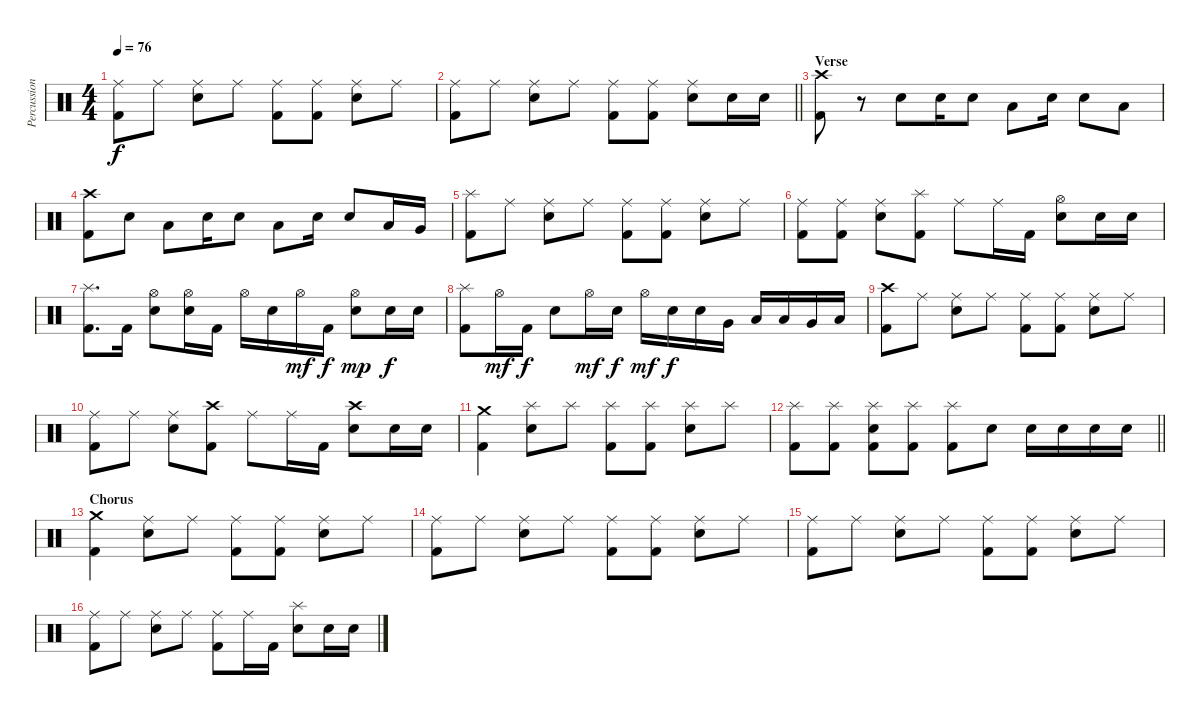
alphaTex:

\track ("Percussion" "Percussion") {instrument percussion}
\staff {score}
\articulation defaults
\ts (4 4)
\tempo 76
\clef neutral
\ks c
("Ride (middle)" "Kick (hit) 2").8{dy f} "Ride (middle)".8 ("Ride (middle)" "Electric Snare (hit)").8 "Ride (middle)".8 ("Ride (middle)" "Kick (hit) 2").8 ("Ride (middle)" "Kick (hit) 2").8 ("Ride (middle)" "Electric Snare (hit)").8 "Ride (middle)".8 |
\barLineRight lightlight
("Ride (middle)" "Kick (hit) 2").8 "Ride (middle)".8 ("Ride (middle)" "Electric Snare (hit)").8 "Ride (middle)".8 ("Ride (middle)" "Kick (hit) 2").8 ("Ride (middle)" "Kick (hit) 2").8 ("Ride (middle)" "Electric Snare (hit)").8 "Electric Snare (hit)".16 "Electric Snare (hit)".16 |
\section ("" "Verse")
("Crash high (hit)" "Kick (hit) 2").8 r.8 "Electric Snare (hit)".8 "Electric Snare (hit)".16 "Electric Snare (hit)".8 "Low Tom (hit)".8 "Electric Snare (hit)".16 "Electric Snare (hit)".8 "Low Tom (hit)".8 |
("Crash high (hit)" "Kick (hit) 2").8 "Electric Snare (hit)".8 "Low Tom (hit)".8 "Electric Snare (hit)".16 "Electric Snare (hit)".8 "Low Tom (hit)".8 "Electric Snare (hit)".16 "Electric Snare (hit)".8 "Low Tom (hit)".16 "Very Low Tom (hit)".16 |
("Splash (hit)" "Kick (hit) 2").8 "Ride (middle)".8 ("Ride (middle)" "Electric Snare (hit)").8 "Ride (middle)".8 ("Ride (middle)" "Kick (hit) 2").8 ("Ride (middle)" "Kick (hit) 2").8 ("Ride (middle)" "Electric Snare (hit)").8 "Ride (middle)".8 |
("Ride (middle)" "Kick (hit) 2").8 ("Ride (middle)" "Kick (hit) 2").8 ("Ride (middle)" "Electric Snare (hit)").8 ("Splash (hit)" "Kick (hit) 2").8 "Ride (middle)".8 "Ride (middle)".16 "Kick (hit) 2".16 ("Hi-Hat (open)" "Electric Snare (hit)").8 "Electric Snare (hit)".16 "Electric Snare (hit)".16 |
("Splash (hit)" "Kick (hit) 2").8{d} "Kick (hit) 2".16 ("Hi-Hat (open)" "Electric Snare (hit)").8 ("Hi-Hat (open)" "Electric Snare (hit)").16 "Kick (hit) 2".16 "Hi-Hat (open)".16 "Electric Snare (hit)".16 "Hi-Hat (open)".16{dy mf} "Kick (hit) 2".16{dy f} ("Hi-Hat (open)" "Electric Snare (hit)").8{dy mp} "Electric Snare (hit)".16{dy f} "Electric Snare (hit)".16 |
("Splash (hit)" "Kick (hit) 2").8 "Hi-Hat (open)".16{dy mf} "Kick (hit) 2".16{dy f} "Electric Snare (hit)".8 "Hi-Hat (open)".16{dy mf} "Electric Snare (hit)".16{dy f} "Hi-Hat (open)".16{dy mf} "Electric Snare (hit)".16{dy f} "Electric Snare (hit)".16 "Very Low Tom (hit)".16 "Low Tom (hit)".16 "Low Tom (hit)".16 "Very Low Tom (hit)".16 "Low Floor Tom (hit)".16 |
("Crash high (hit)" "Kick (hit) 2").8 "Ride (middle)".8 ("Ride (middle)" "Electric Snare (hit)").8 "Ride (middle)".8 ("Ride (middle)" "Kick (hit) 2").8 ("Ride (middle)" "Kick (hit) 2").8 ("Ride (middle)" "Electric Snare (hit)").8 "Ride (middle)".8 |
("Ride (middle)" "Kick (hit) 2").8 "Ride (middle)".8 ("Ride (middle)" "Electric Snare (hit)").8 ("Crash high (hit)" "Kick (hit) 2").8 "Ride (middle)".8 "Ride (middle)".16 "Kick (hit) 2".16 ("Crash high (hit)" "Electric Snare (hit)").8 "Electric Snare (hit)".16 "Electric Snare (hit)".16 |
("Crash medium (hit)" "Kick (hit) 2").4 ("Splash (hit)" "Electric Snare (hit)").8 "Splash (hit)".8 ("Splash (hit)" "Kick (hit) 2").8 ("Splash (hit)" "Kick (hit) 2").8 ("Splash (hit)" "Electric Snare (hit)").8 "Splash (hit)".8 |
\barLineRight lightlight
("Splash (hit)" "Kick (hit) 2").8 ("Splash (hit)" "Kick (hit) 2").8 ("Splash (hit)" "Electric Snare (hit)" "Kick (hit) 2").8 ("Splash (hit)" "Kick (hit) 2").8 ("Splash (hit)" "Kick (hit) 2").8 "Electric Snare (hit)".8 "Electric Snare (hit)".16 "Electric Snare (hit)".16 "Electric Snare (hit)".16 "Electric Snare (hit)".16 |
\section ("" "Chorus")
("Crash medium (hit)" "Kick (hit) 2").4 ("Ride (middle)" "Electric Snare (hit)").8 "Ride (middle)".8 ("Ride (middle)" "Kick (hit) 2").8 ("Ride (middle)" "Kick (hit) 2").8 ("Ride (middle)" "Electric Snare (hit)").8 "Ride (middle)".8 |
("Ride (middle)" "Kick (hit) 2").8 "Ride (middle)".8 ("Ride (middle)" "Electric Snare (hit)").8 "Ride (middle)".8 ("Ride (middle)" "Kick (hit) 2").8 ("Ride (middle)" "Kick (hit) 2").8 ("Ride (middle)" "Electric Snare (hit)").8 "Ride (middle)".8 |
("Ride (middle)" "Kick (hit) 2").8 "Ride (middle)".8 ("Ride (middle)" "Electric Snare (hit)").8 "Ride (middle)".8 ("Ride (middle)" "Kick (hit) 2").8 ("Ride (middle)" "Kick (hit) 2").8 ("Ride (middle)" "Electric Snare (hit)").8 "Ride (middle)".8 |
("Ride (middle)" "Kick (hit) 2").8 "Ride (middle)".8 ("Ride (middle)" "Electric Snare (hit)").8 "Ride (middle)".8 ("Ride (middle)" "Kick (hit) 2").8 "Ride (middle)".16 "Kick (hit) 2".16 ("Splash (hit)" "Electric Snare (hit)").8 "Electric Snare (hit)".16 "Electric Snare (hit)".16
